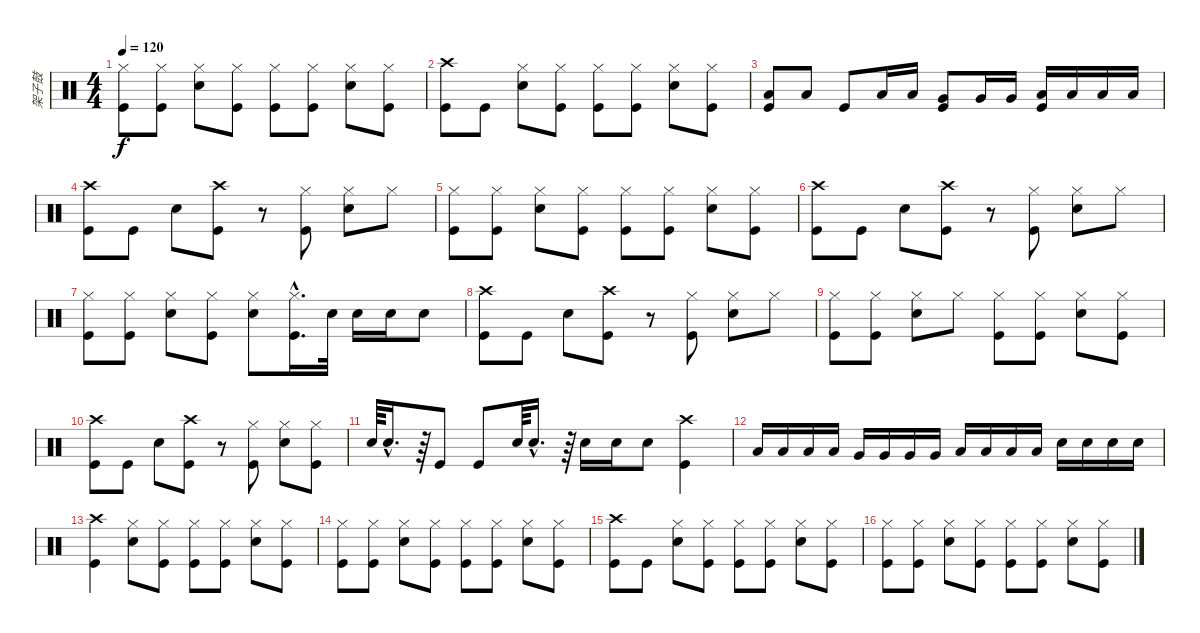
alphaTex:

\track ("架子鼓" "架子鼓") {instrument percussion}
\staff {score}
\articulation defaults
\ts (4 4)
\tempo 120
\clef neutral
\ks c
("Hi-Hat (closed)" "Kick (hit)").8{dy f} ("Hi-Hat (closed)" "Kick (hit)").8 ("Hi-Hat (closed)" "Snare (hit) 2").8 ("Hi-Hat (closed)" "Kick (hit)").8 ("Hi-Hat (closed)" "Kick (hit)").8 ("Hi-Hat (closed)" "Kick (hit)").8 ("Hi-Hat (closed)" "Snare (hit) 2").8 ("Hi-Hat (closed)" "Kick (hit)").8 |
("Crash high (hit)" "Kick (hit)").8 "Kick (hit)".8 ("Hi-Hat (closed)" "Snare (hit) 2").8 ("Hi-Hat (closed)" "Kick (hit)").8 ("Hi-Hat (closed)" "Kick (hit)").8 ("Hi-Hat (closed)" "Kick (hit)").8 ("Hi-Hat (closed)" "Snare (hit) 2").8 ("Hi-Hat (closed)" "Kick (hit)").8 |
("Kick (hit)" "Low Tom (hit)").8 "Low Tom (hit)".8 "Kick (hit)".8 "Low Tom (hit)".16 "Low Tom (hit)".16 ("Kick (hit)" "Very Low Tom (hit)").8 "Very Low Tom (hit)".16 "Very Low Tom (hit)".16 ("Kick (hit)" "Low Floor Tom (hit)").16 "Low Floor Tom (hit)".16 "Low Floor Tom (hit)".16 "Low Floor Tom (hit)".16 |
("Crash high (hit)" "Kick (hit)").8 "Kick (hit)".8 "Snare (hit) 2".8 ("Crash high (hit)" "Kick (hit)").8 r.8 ("Hi-Hat (closed)" "Kick (hit)").8 ("Hi-Hat (closed)" "Snare (hit) 2").8 "Hi-Hat (closed)".8 |
("Hi-Hat (closed)" "Kick (hit)").8 ("Hi-Hat (closed)" "Kick (hit)").8 ("Hi-Hat (closed)" "Snare (hit) 2").8 ("Hi-Hat (closed)" "Kick (hit)").8 ("Hi-Hat (closed)" "Kick (hit)").8 ("Hi-Hat (closed)" "Kick (hit)").8 ("Hi-Hat (closed)" "Snare (hit) 2").8 ("Hi-Hat (closed)" "Kick (hit)").8 |
("Crash high (hit)" "Kick (hit)").8 "Kick (hit)".8 "Snare (hit) 2".8 ("Crash high (hit)" "Kick (hit)").8 r.8 ("Hi-Hat (closed)" "Kick (hit)").8 ("Hi-Hat (closed)" "Snare (hit) 2").8 "Hi-Hat (closed)".8 |
("Hi-Hat (closed)" "Kick (hit)").8 ("Hi-Hat (closed)" "Kick (hit)").8 ("Hi-Hat (closed)" "Snare (hit) 2").8 ("Hi-Hat (closed)" "Kick (hit)").8 ("Hi-Hat (closed)" "Snare (hit) 2").8 ("Hi-Hat (closed)"{hac} "Kick (hit)"{hac}).16{d} "Snare (hit) 2".32 "Snare (hit) 2".16 "Snare (hit) 2".16 "Snare (hit) 2".8 |
("Crash high (hit)" "Kick (hit)").8 "Kick (hit)".8 "Snare (hit) 2".8 ("Crash high (hit)" "Kick (hit)").8 r.8 ("Hi-Hat (closed)" "Kick (hit)").8 ("Hi-Hat (closed)" "Snare (hit) 2").8 "Hi-Hat (closed)".8 |
("Hi-Hat (closed)" "Kick (hit)").8 ("Hi-Hat (closed)" "Kick (hit)").8 ("Hi-Hat (closed)" "Snare (hit) 2").8 "Hi-Hat (closed)".8 ("Hi-Hat (closed)" "Kick (hit)").8 ("Hi-Hat (closed)" "Kick (hit)").8 ("Hi-Hat (closed)" "Snare (hit) 2").8 ("Hi-Hat (closed)" "Kick (hit)").8 |
("Crash high (hit)" "Kick (hit)").8 "Kick (hit)".8 "Snare (hit) 2".8 ("Crash high (hit)" "Kick (hit)").8 r.8 ("Hi-Hat (closed)" "Kick (hit)").8 ("Hi-Hat (closed)" "Snare (hit) 2").8 ("Hi-Hat (closed)" "Kick (hit)").8 |
"Snare (hit) 2".64 "Snare (hit) 2"{hac}.16{d} r.64 "Kick (hit)".8 "Kick (hit)".8 "Snare (hit) 2".64 "Snare (hit) 2"{hac}.16{d} r.64 "Snare (hit) 2".16 "Snare (hit) 2".16 "Snare (hit) 2".8 ("Crash high (hit)" "Kick (hit)").4 |
"Low Tom (hit)".16 "Low Tom (hit)".16 "Low Tom (hit)".16 "Low Tom (hit)".16 "Very Low Tom (hit)".16 "Very Low Tom (hit)".16 "Very Low Tom (hit)".16 "Very Low Tom (hit)".16 "Low Floor Tom (hit)".16 "Low Floor Tom (hit)".16 "Low Floor Tom (hit)".16 "Low Floor Tom (hit)".16 "Snare (hit) 2".16 "Snare (hit) 2".16 "Snare (hit) 2".16 "Snare (hit) 2".16 |
("Crash high (hit)" "Kick (hit)").4 ("Hi-Hat (closed)" "Snare (hit) 2").8 ("Hi-Hat (closed)" "Kick (hit)").8 ("Hi-Hat (closed)" "Kick (hit)").8 ("Hi-Hat (closed)" "Kick (hit)").8 ("Hi-Hat (closed)" "Snare (hit) 2").8 ("Hi-Hat (closed)" "Kick (hit)").8 |
("Hi-Hat (closed)" "Kick (hit)").8 ("Hi-Hat (closed)" "Kick (hit)").8 ("Hi-Hat (closed)" "Snare (hit) 2").8 ("Hi-Hat (closed)" "Kick (hit)").8 ("Hi-Hat (closed)" "Kick (hit)").8 ("Hi-Hat (closed)" "Kick (hit)").8 ("Hi-Hat (closed)" "Snare (hit) 2").8 ("Hi-Hat (closed)" "Kick (hit)").8 |
("Crash high (hit)" "Kick (hit)").8 "Kick (hit)".8 ("Hi-Hat (closed)" "Snare (hit) 2").8 ("Hi-Hat (closed)" "Kick (hit)").8 ("Hi-Hat (closed)" "Kick (hit)").8 ("Hi-Hat (closed)" "Kick (hit)").8 ("Hi-Hat (closed)" "Snare (hit) 2").8 ("Hi-Hat (closed)" "Kick (hit)").8 |
("Hi-Hat (closed)" "Kick (hit)").8 ("Hi-Hat (closed)" "Kick (hit)").8 ("Hi-Hat (closed)" "Snare (hit) 2").8 ("Hi-Hat (closed)" "Kick (hit)").8 ("Hi-Hat (closed)" "Kick (hit)").8 ("Hi-Hat (closed)" "Kick (hit)").8 ("Hi-Hat (closed)" "Snare (hit) 2").8 ("Hi-Hat (closed)" "Kick (hit)").8
